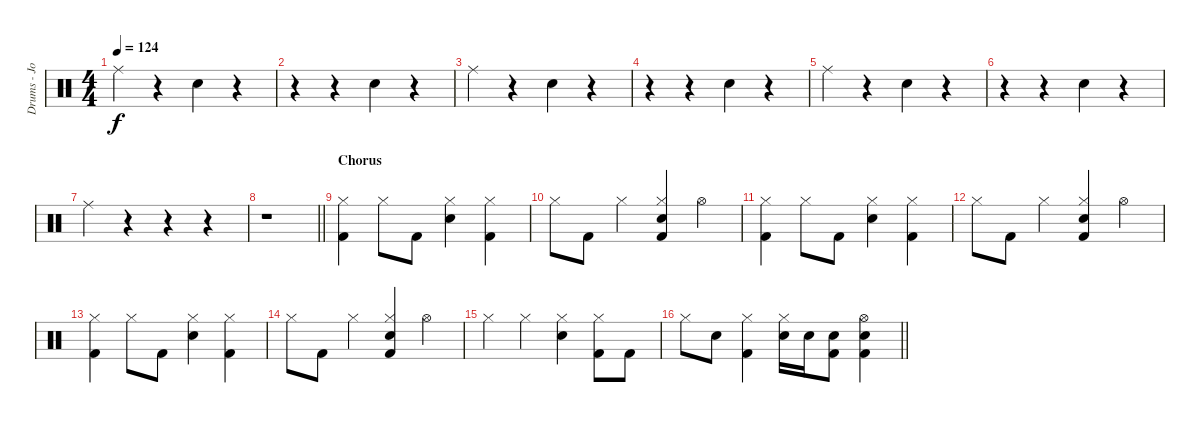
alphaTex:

\track ("Drums - John Humphrey" "Drums - Jo") {instrument percussion}
\staff {score}
\articulation defaults
\ts (4 4)
\tempo 124
\clef neutral
\ks c "Ride (middle)".4{dy f}
r.4 "Electric Snare (hit)".4 r.4 |
r.4 r.4 "Electric Snare (hit)".4 r.4 |
"Ride (middle)".4 r.4 "Electric Snare (hit)".4 r.4 |
r.4 r.4 "Electric Snare (hit)".4 r.4 |
"Ride (middle)".4 r.4 "Electric Snare (hit)".4 r.4 |
r.4 r.4 "Electric Snare (hit)".4 r.4 |
"Ride (middle)".4 r.4 r.4 r.4 |
\barLineRight lightlight
r.1 |
\section ("" "Chorus")
("Hi-Hat (closed)" "Kick (hit) 2").4 "Hi-Hat (closed)".8 "Kick (hit) 2".8 ("Hi-Hat (closed)" "Electric Snare (hit)").4 ("Hi-Hat (closed)" "Kick (hit) 2").4 |
"Hi-Hat (closed)".8 "Kick (hit) 2".8 "Hi-Hat (closed)".4 ("Hi-Hat (closed)" "Electric Snare (hit)" "Kick (hit) 2").4 "Hi-Hat (open)".4 |
("Hi-Hat (closed)" "Kick (hit) 2").4 "Hi-Hat (closed)".8 "Kick (hit) 2".8 ("Hi-Hat (closed)" "Electric Snare (hit)").4 ("Hi-Hat (closed)" "Kick (hit) 2").4 |
"Hi-Hat (closed)".8 "Kick (hit) 2".8 "Hi-Hat (closed)".4 ("Hi-Hat (closed)" "Electric Snare (hit)" "Kick (hit) 2").4 "Hi-Hat (open)".4 |
("Hi-Hat (closed)" "Kick (hit) 2").4 "Hi-Hat (closed)".8 "Kick (hit) 2".8 ("Hi-Hat (closed)" "Electric Snare (hit)").4 ("Hi-Hat (closed)" "Kick (hit) 2").4 |
"Hi-Hat (closed)".8 "Kick (hit) 2".8 "Hi-Hat (closed)".4 ("Hi-Hat (closed)" "Electric Snare (hit)" "Kick (hit) 2").4 "Hi-Hat (open)".4 |
"Hi-Hat (closed)".4 "Hi-Hat (closed)".4 ("Hi-Hat (closed)" "Electric Snare (hit)").4 ("Hi-Hat (closed)" "Kick (hit) 2").8 "Kick (hit) 2".8 |
\barLineRight lightlight "Hi-Hat (closed)".8 "Electric Snare (hit)".8
("Hi-Hat (closed)" "Kick (hit) 2").4 ("Hi-Hat (closed)" "Electric Snare (hit)").16 "Electric Snare (hit)".16 ("Electric Snare (hit)" "Kick (hit) 2").8 ("Hi-Hat (open)" "Electric Snare (hit)" "Kick (hit) 2").4
